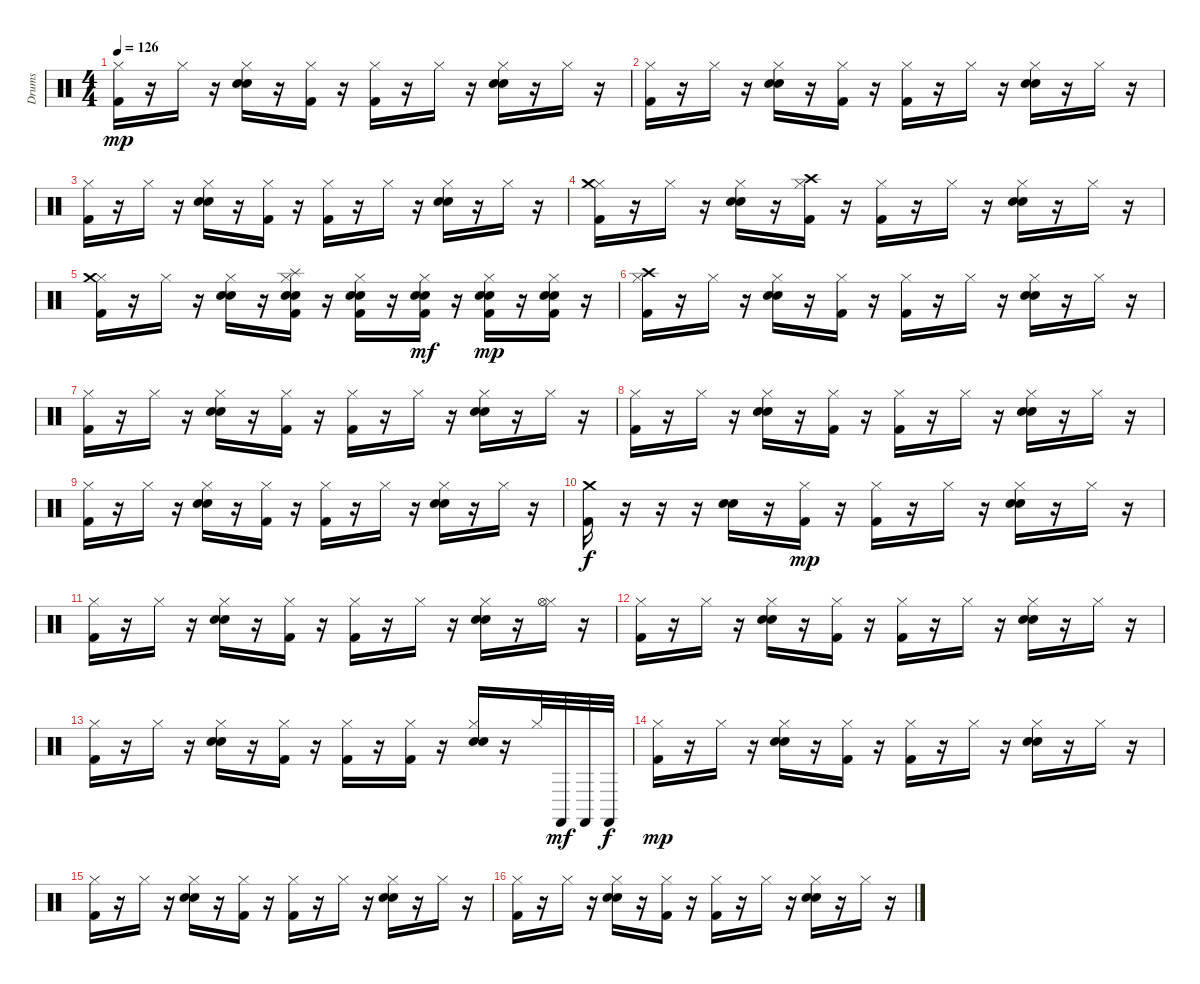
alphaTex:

\track ("Drums" "Drums") {instrument percussion}
\staff {score}
\articulation defaults
\ts (4 4)
\tempo 126
\clef neutral
\ks c
("Hi-Hat (closed)" "Kick (hit) 2").16{dy mp} r.16 "Hi-Hat (closed)".16 r.16 ("Hi-Hat (closed)" "Snare (hit) 2" "Electric Snare (hit)").16 r.16 ("Hi-Hat (closed)" "Kick (hit) 2").16 r.16 ("Hi-Hat (closed)" "Kick (hit) 2").16 r.16 "Hi-Hat (closed)".16 r.16 ("Hi-Hat (closed)" "Snare (hit) 2" "Electric Snare (hit)").16 r.16 "Hi-Hat (closed)".16 r.16 |
("Hi-Hat (closed)" "Kick (hit) 2").16 r.16 "Hi-Hat (closed)".16 r.16 ("Hi-Hat (closed)" "Snare (hit) 2" "Electric Snare (hit)").16 r.16 ("Hi-Hat (closed)" "Kick (hit) 2").16 r.16 ("Hi-Hat (closed)" "Kick (hit) 2").16 r.16 "Hi-Hat (closed)".16 r.16 ("Hi-Hat (closed)" "Snare (hit) 2" "Electric Snare (hit)").16 r.16 "Hi-Hat (closed)".16 r.16 |
("Hi-Hat (closed)" "Kick (hit) 2").16 r.16 "Hi-Hat (closed)".16 r.16 ("Hi-Hat (closed)" "Snare (hit) 2" "Electric Snare (hit)").16 r.16 ("Hi-Hat (closed)" "Kick (hit) 2").16 r.16 ("Hi-Hat (closed)" "Kick (hit) 2").16 r.16 "Hi-Hat (closed)".16 r.16 ("Hi-Hat (closed)" "Snare (hit) 2" "Electric Snare (hit)").16 r.16 "Hi-Hat (closed)".16 r.16 |
("Hi-Hat (closed)" "Crash medium (hit)" "Kick (hit) 2").16 r.16 "Hi-Hat (closed)".16 r.16 ("Hi-Hat (closed)" "Snare (hit) 2" "Electric Snare (hit)").16 r.16 ("Hi-Hat (closed)" "Crash high (hit)" "Kick (hit) 2").16 r.16 ("Hi-Hat (closed)" "Kick (hit) 2").16 r.16 "Hi-Hat (closed)".16 r.16 ("Hi-Hat (closed)" "Snare (hit) 2" "Electric Snare (hit)").16 r.16 "Hi-Hat (closed)".16 r.16 |
("Hi-Hat (closed)" "Crash medium (hit)" "Kick (hit) 2").16 r.16 "Hi-Hat (closed)".16 r.16 ("Hi-Hat (closed)" "Snare (hit) 2" "Electric Snare (hit)").16 r.16 ("Hi-Hat (closed)" "Splash (hit)" "Snare (hit) 2" "Electric Snare (hit)" "Kick (hit) 2").16 r.16 ("Hi-Hat (closed)" "Snare (hit) 2" "Electric Snare (hit)" "Kick (hit) 2").16 r.16 ("Hi-Hat (closed)" "Snare (hit) 2" "Electric Snare (hit)" "Kick (hit) 2").16{dy mf} r.16 ("Hi-Hat (closed)" "Snare (hit) 2" "Electric Snare (hit)" "Kick (hit) 2").16{dy mp} r.16 ("Hi-Hat (closed)" "Snare (hit) 2" "Electric Snare (hit)" "Kick (hit) 2").16 r.16 |
("Hi-Hat (closed)" "Crash high (hit)" "Kick (hit) 2").16 r.16 "Hi-Hat (closed)".16 r.16 ("Hi-Hat (closed)" "Snare (hit) 2" "Electric Snare (hit)").16 r.16 ("Hi-Hat (closed)" "Kick (hit) 2").16 r.16 ("Hi-Hat (closed)" "Kick (hit) 2").16 r.16 "Hi-Hat (closed)".16 r.16 ("Hi-Hat (closed)" "Snare (hit) 2" "Electric Snare (hit)").16 r.16 "Hi-Hat (closed)".16 r.16 |
("Hi-Hat (closed)" "Kick (hit) 2").16 r.16 "Hi-Hat (closed)".16 r.16 ("Hi-Hat (closed)" "Snare (hit) 2" "Electric Snare (hit)").16 r.16 ("Hi-Hat (closed)" "Kick (hit) 2").16 r.16 ("Hi-Hat (closed)" "Kick (hit) 2").16 r.16 "Hi-Hat (closed)".16 r.16 ("Hi-Hat (closed)" "Snare (hit) 2" "Electric Snare (hit)").16 r.16 "Hi-Hat (closed)".16 r.16 |
("Hi-Hat (closed)" "Kick (hit) 2").16 r.16 "Hi-Hat (closed)".16 r.16 ("Hi-Hat (closed)" "Snare (hit) 2" "Electric Snare (hit)").16 r.16 ("Hi-Hat (closed)" "Kick (hit) 2").16 r.16 ("Hi-Hat (closed)" "Kick (hit) 2").16 r.16 "Hi-Hat (closed)".16 r.16 ("Hi-Hat (closed)" "Snare (hit) 2" "Electric Snare (hit)").16 r.16 "Hi-Hat (closed)".16 r.16 |
("Hi-Hat (closed)" "Kick (hit) 2").16 r.16 "Hi-Hat (closed)".16 r.16 ("Hi-Hat (closed)" "Snare (hit) 2" "Electric Snare (hit)").16 r.16 ("Hi-Hat (closed)" "Kick (hit) 2").16 r.16 ("Hi-Hat (closed)" "Kick (hit) 2").16 r.16 "Hi-Hat (closed)".16 r.16 ("Hi-Hat (closed)" "Snare (hit) 2" "Electric Snare (hit)").16 r.16 "Hi-Hat (closed)".16 r.16 |
("Crash medium (hit)" "Kick (hit) 2").16{dy f} r.16 r.16 r.16 ("Snare (hit) 2" "Electric Snare (hit)").16 r.16 ("Hi-Hat (closed)" "Kick (hit) 2").16{dy mp} r.16 ("Hi-Hat (closed)" "Kick (hit) 2").16 r.16 "Hi-Hat (closed)".16 r.16 ("Hi-Hat (closed)" "Snare (hit) 2" "Electric Snare (hit)").16 r.16 "Hi-Hat (closed)".16 r.16 |
("Hi-Hat (closed)" "Kick (hit) 2").16 r.16 "Hi-Hat (closed)".16 r.16 ("Hi-Hat (closed)" "Snare (hit) 2" "Electric Snare (hit)").16 r.16 ("Hi-Hat (closed)" "Kick (hit) 2").16 r.16 ("Hi-Hat (closed)" "Kick (hit) 2").16 r.16 "Hi-Hat (closed)".16 r.16 ("Hi-Hat (closed)" "Snare (hit) 2" "Electric Snare (hit)").16 r.16 ("Hi-Hat (closed)" "Hi-Hat (open)").16 r.16 |
("Hi-Hat (closed)" "Kick (hit) 2").16 r.16 "Hi-Hat (closed)".16 r.16 ("Hi-Hat (closed)" "Snare (hit) 2" "Electric Snare (hit)").16 r.16 ("Hi-Hat (closed)" "Kick (hit) 2").16 r.16 ("Hi-Hat (closed)" "Kick (hit) 2").16 r.16 "Hi-Hat (closed)".16 r.16 ("Hi-Hat (closed)" "Snare (hit) 2" "Electric Snare (hit)").16 r.16 "Hi-Hat (closed)".16 r.16 |
("Hi-Hat (closed)" "Kick (hit) 2").16 r.16 "Hi-Hat (closed)".16 r.16 ("Hi-Hat (closed)" "Snare (hit) 2" "Electric Snare (hit)").16 r.16 ("Hi-Hat (closed)" "Kick (hit) 2").16 r.16 ("Hi-Hat (closed)" "Kick (hit) 2").16 r.16 ("Hi-Hat (closed)" "Kick (hit) 2").16 r.16 ("Hi-Hat (closed)" "Snare (hit) 2" "Electric Snare (hit)").16 r.16 "Hi-Hat (closed)".32 "Castanets (hit)".32{dy mf} "Castanets (hit)".32 "Castanets (hit)".32{dy f} |
("Hi-Hat (closed)" "Kick (hit) 2").16{dy mp volume 7} r.16 "Hi-Hat (closed)".16 r.16 ("Hi-Hat (closed)" "Snare (hit) 2" "Electric Snare (hit)").16 r.16 ("Hi-Hat (closed)" "Kick (hit) 2").16 r.16 ("Hi-Hat (closed)" "Kick (hit) 2").16 r.16 "Hi-Hat (closed)".16 r.16 ("Hi-Hat (closed)" "Snare (hit) 2" "Electric Snare (hit)").16 r.16 "Hi-Hat (closed)".16 r.16 |
("Hi-Hat (closed)" "Kick (hit) 2").16 r.16 "Hi-Hat (closed)".16 r.16 ("Hi-Hat (closed)" "Snare (hit) 2" "Electric Snare (hit)").16 r.16 ("Hi-Hat (closed)" "Kick (hit) 2").16 r.16 ("Hi-Hat (closed)" "Kick (hit) 2").16 r.16 "Hi-Hat (closed)".16 r.16 ("Hi-Hat (closed)" "Snare (hit) 2" "Electric Snare (hit)").16 r.16 "Hi-Hat (closed)".16 r.16 |
("Hi-Hat (closed)" "Kick (hit) 2").16 r.16 "Hi-Hat (closed)".16 r.16 ("Hi-Hat (closed)" "Snare (hit) 2" "Electric Snare (hit)").16 r.16 ("Hi-Hat (closed)" "Kick (hit) 2").16 r.16 ("Hi-Hat (closed)" "Kick (hit) 2").16 r.16 "Hi-Hat (closed)".16 r.16 ("Hi-Hat (closed)" "Snare (hit) 2" "Electric Snare (hit)").16 r.16 "Hi-Hat (closed)".16 r.16
